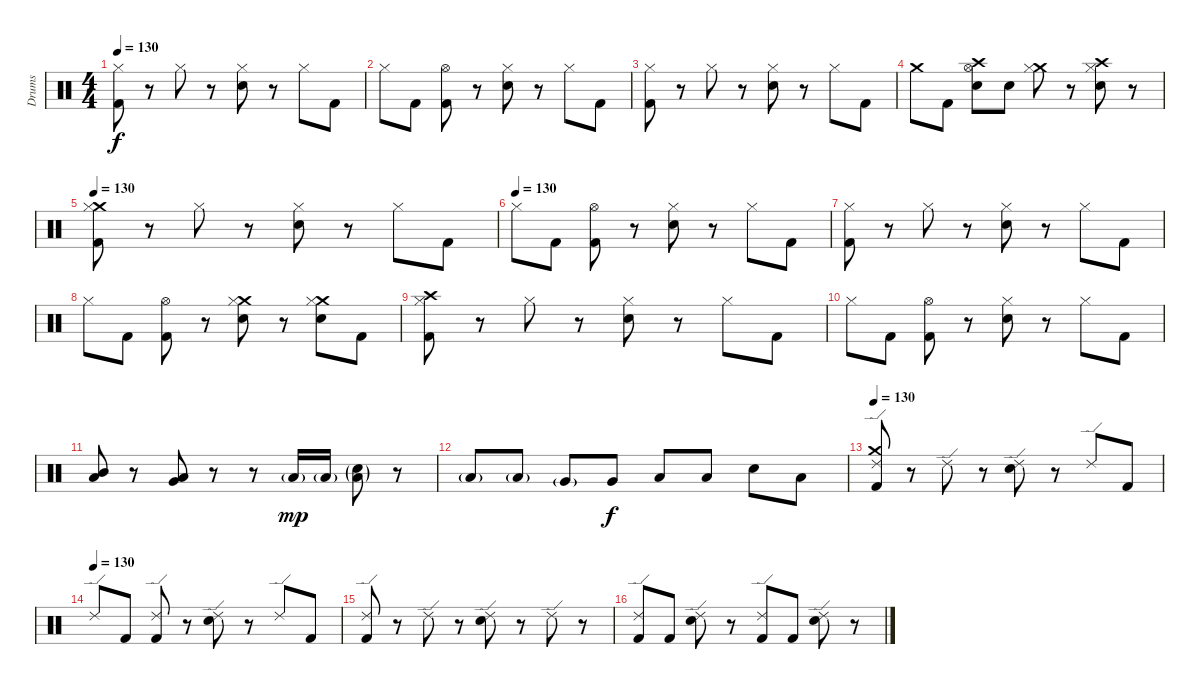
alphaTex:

\track ("Drums" "Drums") {instrument percussion}
\staff {score}
\articulation defaults
\ts (4 4)
\tempo 130
\clef neutral
\ks c
("Kick (hit) 2" "Hi-Hat (closed)").8{dy f} r.8 "Hi-Hat (closed)".8 r.8 ("Electric Snare (hit)" "Hi-Hat (closed)").8 r.8 "Hi-Hat (closed)".8 "Kick (hit) 2".8 |
"Hi-Hat (closed)".8 "Kick (hit) 2".8 ("Kick (hit) 2" "Hi-Hat (open)").8 r.8 ("Electric Snare (hit)" "Hi-Hat (closed)").8 r.8 "Hi-Hat (closed)".8 "Kick (hit) 2".8 |
("Kick (hit) 2" "Hi-Hat (closed)").8 r.8 "Hi-Hat (closed)".8 r.8 ("Electric Snare (hit)" "Hi-Hat (closed)").8 r.8 "Hi-Hat (closed)".8 "Kick (hit) 2".8 |
"Crash medium (hit)".8 "Kick (hit) 2".8 ("Electric Snare (hit)" "Crash high (hit)" "Hi-Hat (open)").8 "Electric Snare (hit)".8 ("Crash medium (hit)" "Hi-Hat (closed)").8 r.8 ("Electric Snare (hit)" "Crash high (hit)" "Hi-Hat (closed)").8 r.8 |
\tempo 130
("Kick (hit) 2" "Crash medium (hit)" "Hi-Hat (closed)").8 r.8 "Hi-Hat (closed)".8 r.8 ("Electric Snare (hit)" "Hi-Hat (closed)").8 r.8 "Hi-Hat (closed)".8 "Kick (hit) 2".8 |
\tempo (130)
"Hi-Hat (closed)".8 "Kick (hit) 2".8 ("Kick (hit) 2" "Hi-Hat (open)").8 r.8 ("Electric Snare (hit)" "Hi-Hat (closed)").8 r.8 "Hi-Hat (closed)".8 "Kick (hit) 2".8 |
("Kick (hit) 2" "Hi-Hat (closed)").8 r.8 "Hi-Hat (closed)".8 r.8 ("Electric Snare (hit)" "Hi-Hat (closed)").8 r.8 "Hi-Hat (closed)".8 "Kick (hit) 2".8 |
"Hi-Hat (closed)".8 "Kick (hit) 2".8 ("Kick (hit) 2" "Hi-Hat (open)").8 r.8 ("Electric Snare (hit)" "Crash medium (hit)" "Hi-Hat (closed)").8 r.8 ("Electric Snare (hit)" "Crash medium (hit)" "Hi-Hat (closed)").8 "Kick (hit) 2".8 |
("Kick (hit) 2" "Crash high (hit)" "Hi-Hat (closed)").8 r.8 "Hi-Hat (closed)".8 r.8 ("Electric Snare (hit)" "Hi-Hat (closed)").8 r.8 "Hi-Hat (closed)".8 "Kick (hit) 2".8 |
"Hi-Hat (closed)".8 "Kick (hit) 2".8 ("Kick (hit) 2" "Hi-Hat (open)").8 r.8 ("Electric Snare (hit)" "Hi-Hat (closed)").8 r.8 "Hi-Hat (closed)".8 "Kick (hit) 2".8 |
("Mid Tom (hit)" "Low Tom (hit)").8 r.8 ("Low Tom (hit)" "Very Low Tom (hit)").8 r.8 r.8 "Low Tom (hit)"{g}.16{dy mp} "Low Tom (hit)"{g}.16 ("Low Tom (hit)"{g} "Electric Snare (hit)"{g}).8 r.8 |
"Low Tom (hit)"{g}.8 "Low Tom (hit)"{g}.8 "Very Low Tom (hit)"{g}.8 "Very Low Tom (hit)".8{dy f} "Low Floor Tom (hit)".8 "Low Floor Tom (hit)".8 "Electric Snare (hit)".8 "Low Floor Tom (hit)".8 |
\tempo 130
("Kick (hit) 2" "Crash medium (hit)" "Ride (edge) 2").8 r.8 "Ride (edge) 2".8 r.8 ("Electric Snare (hit)" "Ride (edge) 2").8 r.8 "Ride (edge) 2".8 "Kick (hit) 2".8 |
\tempo (130)
"Ride (edge) 2".8 "Kick (hit) 2".8 ("Kick (hit) 2" "Ride (edge) 2").8 r.8 ("Electric Snare (hit)" "Ride (edge) 2").8 r.8 "Ride (edge) 2".8 "Kick (hit) 2".8 |
("Kick (hit) 2" "Ride (edge) 2").8 r.8 "Ride (edge) 2".8 r.8 ("Electric Snare (hit)" "Ride (edge) 2").8 r.8 "Ride (edge) 2".8 r.8 |
("Kick (hit) 2" "Ride (edge) 2").8 "Kick (hit) 2".8 ("Electric Snare (hit)" "Ride (edge) 2").8 r.8 ("Kick (hit) 2" "Ride (edge) 2").8 "Kick (hit) 2".8 ("Electric Snare (hit)" "Ride (edge) 2").8 r.8
